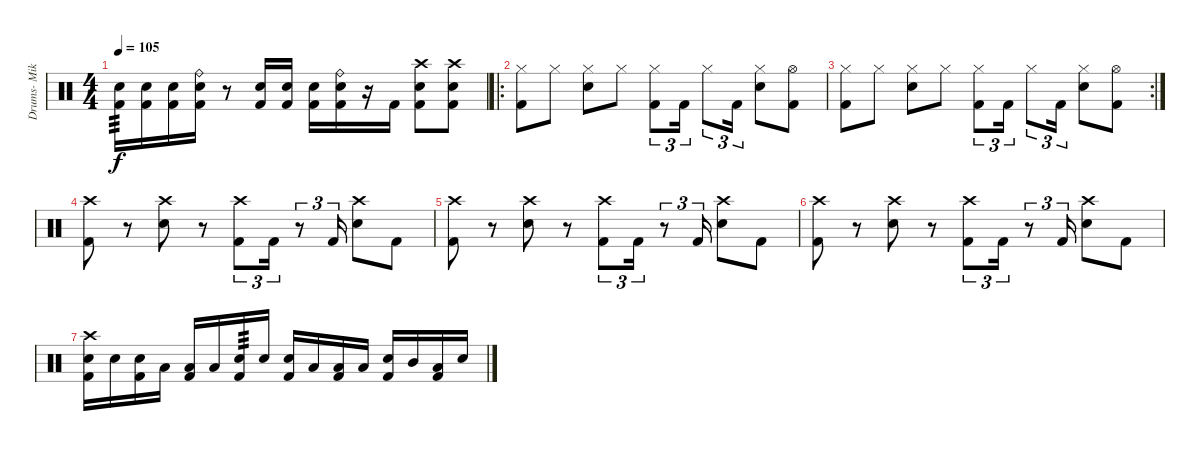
\track ("Drums- Mike " "Drums- Mik") {instrument percussion}
\staff {score}
\articulation defaults
\ts (4 4)
\tempo 105
\clef neutral
\ks c
("Snare (hit) 2" "Kick (hit) 2").16{tp 3 dy f} ("Snare (hit) 2" "Kick (hit) 2").16 ("Snare (hit) 2" "Kick (hit) 2").16 ("Ride (bell)" "Snare (hit) 2" "Kick (hit) 2").16 r.8 ("Snare (hit) 2" "Kick (hit) 2").16 ("Snare (hit) 2" "Kick (hit) 2").16 ("Snare (hit) 2" "Kick (hit) 2").16 ("Ride (bell)" "Snare (hit) 2" "Kick (hit) 2").16 r.16 "Kick (hit) 2".16 ("Crash high (hit)" "Snare (hit) 2" "Kick (hit) 2").8 ("Crash high (hit)" "Snare (hit) 2" "Kick (hit) 2").8 |
\ro
("Hi-Hat (closed)" "Kick (hit) 2").8 "Hi-Hat (closed)".8 ("Hi-Hat (closed)" "Snare (hit) 2").8 "Hi-Hat (closed)".8 ("Hi-Hat (closed)" "Kick (hit) 2").8{tu (3 2)} "Kick (hit) 2".16{tu (3 2)} "Hi-Hat (closed)".8{tu (3 2)} "Kick (hit) 2".16{tu (3 2)} ("Hi-Hat (closed)" "Snare (hit) 2").8 ("Hi-Hat (open)" "Kick (hit) 2").8 |
\rc 2
("Hi-Hat (closed)" "Kick (hit) 2").8 "Hi-Hat (closed)".8 ("Hi-Hat (closed)" "Snare (hit) 2").8 "Hi-Hat (closed)".8 ("Hi-Hat (closed)" "Kick (hit) 2").8{tu (3 2)} "Kick (hit) 2".16{tu (3 2)} "Hi-Hat (closed)".8{tu (3 2)} "Kick (hit) 2".16{tu (3 2)} ("Hi-Hat (closed)" "Snare (hit) 2").8 ("Hi-Hat (open)" "Kick (hit) 2").8 |
("Crash high (hit)" "Kick (hit) 2").8 r.8 ("Crash high (hit)" "Snare (hit) 2").8 r.8 ("Crash high (hit)" "Kick (hit) 2").8{tu (3 2)} "Kick (hit) 2".16{tu (3 2)} r.8{tu (3 2)} "Kick (hit) 2".16{tu (3 2)} ("Crash high (hit)" "Snare (hit) 2").8 "Kick (hit) 2".8 |
("Crash high (hit)" "Kick (hit) 2").8 r.8 ("Crash high (hit)" "Snare (hit) 2").8 r.8 ("Crash high (hit)" "Kick (hit) 2").8{tu (3 2)} "Kick (hit) 2".16{tu (3 2)} r.8{tu (3 2)} "Kick (hit) 2".16{tu (3 2)} ("Crash high (hit)" "Snare (hit) 2").8 "Kick (hit) 2".8 |
("Crash high (hit)" "Kick (hit) 2").8 r.8 ("Crash high (hit)" "Snare (hit) 2").8 r.8 ("Crash high (hit)" "Kick (hit) 2").8{tu (3 2)} "Kick (hit) 2".16{tu (3 2)} r.8{tu (3 2)} "Kick (hit) 2".16{tu (3 2)} ("Crash high (hit)" "Snare (hit) 2").8 "Kick (hit) 2".8 |
("Crash high (hit)" "Snare (hit) 2" "Kick (hit) 2").16 "Snare (hit) 2".16 ("Snare (hit) 2" "Kick (hit) 2").16 "Low Tom (hit)".16 ("Low Tom (hit)" "Kick (hit) 2").16 "Low Tom (hit)".16 ("Snare (hit) 2" "Kick (hit) 2").16{tp 3} "Snare (hit) 2".16 ("Snare (hit) 2" "Kick (hit) 2").16 "Low Tom (hit)".16 ("Low Tom (hit)" "Kick (hit) 2").16 "Low Tom (hit)".16 ("Snare (hit) 2" "Kick (hit) 2").16 "Mid Tom (hit)".16 ("Low Tom (hit)" "Kick (hit) 2").16 "Snare (hit) 2".16
